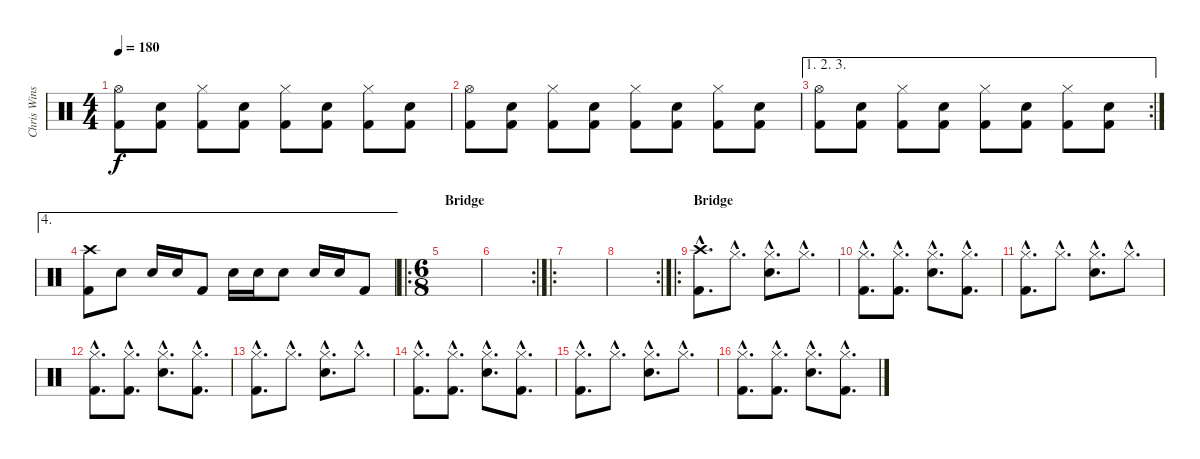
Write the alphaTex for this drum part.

\track ("Chris Winship (Drums)" "Chris Wins") {instrument percussion}
\staff {score}
\articulation defaults
\ts (4 4)
\tempo 180
\clef neutral
\ks c
("Hi-Hat (open)" "Kick (hit) 2").8{dy f} ("Electric Snare (hit)" "Kick (hit) 2").8 ("Hi-Hat (closed)" "Kick (hit) 2").8 ("Electric Snare (hit)" "Kick (hit) 2").8 ("Hi-Hat (closed)" "Kick (hit) 2").8 ("Electric Snare (hit)" "Kick (hit) 2").8 ("Hi-Hat (closed)" "Kick (hit) 2").8 ("Electric Snare (hit)" "Kick (hit) 2").8 |
("Hi-Hat (open)" "Kick (hit) 2").8 ("Electric Snare (hit)" "Kick (hit) 2").8 ("Hi-Hat (closed)" "Kick (hit) 2").8 ("Electric Snare (hit)" "Kick (hit) 2").8 ("Hi-Hat (closed)" "Kick (hit) 2").8 ("Electric Snare (hit)" "Kick (hit) 2").8 ("Hi-Hat (closed)" "Kick (hit) 2").8 ("Electric Snare (hit)" "Kick (hit) 2").8 |
\ae (1 2 3)
\rc 2
("Hi-Hat (open)" "Kick (hit) 2").8 ("Electric Snare (hit)" "Kick (hit) 2").8 ("Hi-Hat (closed)" "Kick (hit) 2").8 ("Electric Snare (hit)" "Kick (hit) 2").8 ("Hi-Hat (closed)" "Kick (hit) 2").8 ("Electric Snare (hit)" "Kick (hit) 2").8 ("Hi-Hat (closed)" "Kick (hit) 2").8 ("Electric Snare (hit)" "Kick (hit) 2").8 |
\ae 4
("Crash high (hit)" "Kick (hit) 2").8 "Electric Snare (hit)".8 "Electric Snare (hit)".16 "Electric Snare (hit)".16 "Kick (hit) 2".8 "Electric Snare (hit)".16 "Electric Snare (hit)".16 "Electric Snare (hit)".8 "Electric Snare (hit)".16 "Electric Snare (hit)".16 "Kick (hit) 2".8 |
\ro
\ts (6 8)
\section ("" "Bridge")
|
\rc 2
|
\ro
|
\rc 2
|
\ro
\section ("" "Bridge")
("Crash high (hit)"{hac} "Kick (hit) 2"{hac}).8{d} "Hi-Hat (closed)"{hac}.8{d} ("Hi-Hat (closed)"{hac} "Electric Snare (hit)"{hac}).8{d} "Hi-Hat (closed)"{hac}.8{d} |
("Hi-Hat (closed)"{hac} "Kick (hit) 2"{hac}).8{d} ("Hi-Hat (closed)"{hac} "Kick (hit) 2"{hac}).8{d} ("Hi-Hat (closed)"{hac} "Electric Snare (hit)"{hac}).8{d} ("Hi-Hat (closed)"{hac} "Kick (hit) 2"{hac}).8{d} |
("Hi-Hat (closed)"{hac} "Kick (hit) 2"{hac}).8{d} "Hi-Hat (closed)"{hac}.8{d} ("Hi-Hat (closed)"{hac} "Electric Snare (hit)"{hac}).8{d} "Hi-Hat (closed)"{hac}.8{d} |
("Hi-Hat (closed)"{hac} "Kick (hit) 2"{hac}).8{d} ("Hi-Hat (closed)"{hac} "Kick (hit) 2"{hac}).8{d} ("Hi-Hat (closed)"{hac} "Electric Snare (hit)"{hac}).8{d} ("Hi-Hat (closed)"{hac} "Kick (hit) 2"{hac}).8{d} |
("Hi-Hat (closed)"{hac} "Kick (hit) 2"{hac}).8{d} "Hi-Hat (closed)"{hac}.8{d} ("Hi-Hat (closed)"{hac} "Electric Snare (hit)"{hac}).8{d} "Hi-Hat (closed)"{hac}.8{d} |
("Hi-Hat (closed)"{hac} "Kick (hit) 2"{hac}).8{d} ("Hi-Hat (closed)"{hac} "Kick (hit) 2"{hac}).8{d} ("Hi-Hat (closed)"{hac} "Electric Snare (hit)"{hac}).8{d} ("Hi-Hat (closed)"{hac} "Kick (hit) 2"{hac}).8{d} |
("Hi-Hat (closed)"{hac} "Kick (hit) 2"{hac}).8{d} "Hi-Hat (closed)"{hac}.8{d} ("Hi-Hat (closed)"{hac} "Electric Snare (hit)"{hac}).8{d} "Hi-Hat (closed)"{hac}.8{d} |
("Hi-Hat (closed)"{hac} "Kick (hit) 2"{hac}).8{d} ("Hi-Hat (closed)"{hac} "Kick (hit) 2"{hac}).8{d} ("Hi-Hat (closed)"{hac} "Electric Snare (hit)"{hac}).8{d} ("Hi-Hat (closed)"{hac} "Kick (hit) 2"{hac}).8{d}
